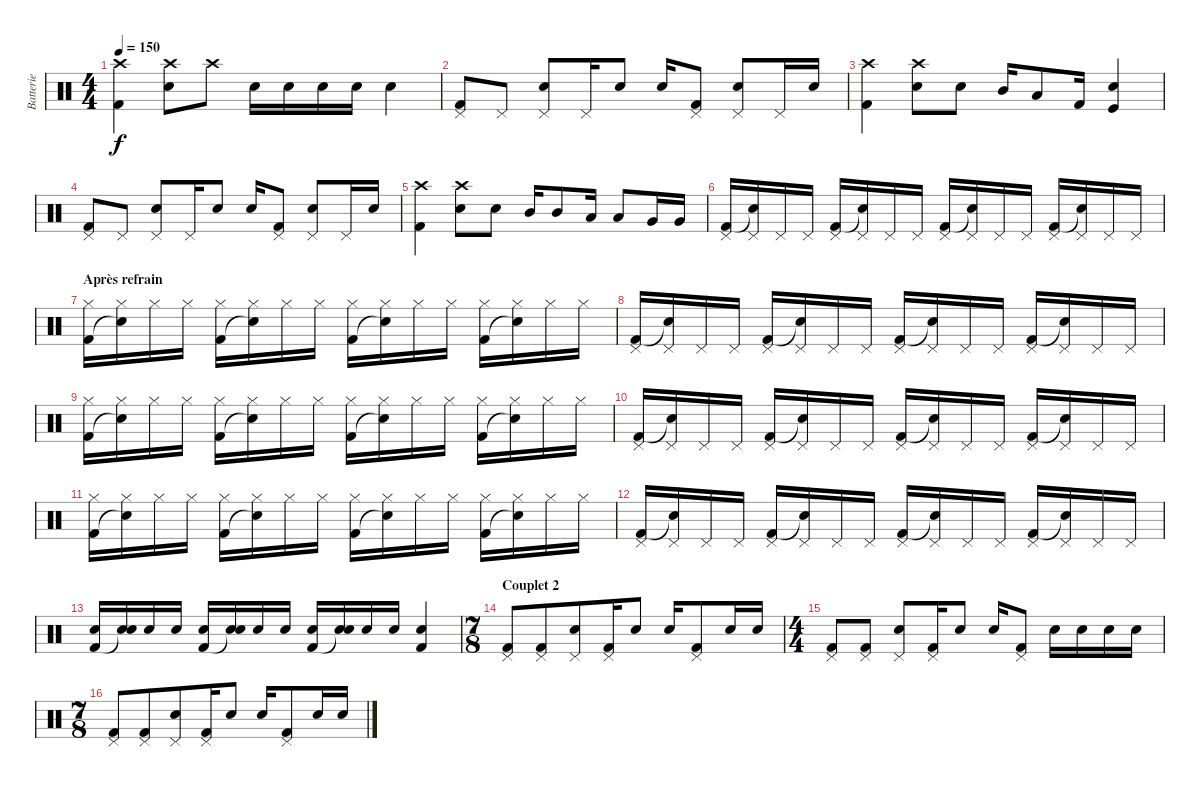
\track ("Batterie" "Batterie") {instrument percussion}
\staff {score}
\articulation defaults
\ts (4 4)
\tempo 150
\clef neutral
\ks c
("Crash high (hit)" "Kick (hit) 2").4{dy f} ("Crash high (hit)" "Electric Snare (hit)").8 "Crash high (hit)".8 "Electric Snare (hit)".16 "Electric Snare (hit)".16 "Electric Snare (hit)".16 "Electric Snare (hit)".16 "Electric Snare (hit)".4 |
("Pedal Hi-Hat (hit)" "Kick (hit) 2").8 "Pedal Hi-Hat (hit)".8 ("Pedal Hi-Hat (hit)" "Electric Snare (hit)").8 "Pedal Hi-Hat (hit)".16 "Electric Snare (hit)".8 "Electric Snare (hit)".16 ("Pedal Hi-Hat (hit)" "Kick (hit) 2").8 ("Pedal Hi-Hat (hit)" "Electric Snare (hit)").8 "Pedal Hi-Hat (hit)".16 "Electric Snare (hit)".16 |
("Crash high (hit)" "Kick (hit) 2").4 ("Crash high (hit)" "Electric Snare (hit)").8 "Electric Snare (hit)".8 "Mid Tom (hit)".16 "Low Tom (hit)".8 "Kick (hit) 2".16 ("Electric Snare (hit)" "Kick (hit)").4 |
("Pedal Hi-Hat (hit)" "Kick (hit) 2").8 "Pedal Hi-Hat (hit)".8 ("Pedal Hi-Hat (hit)" "Electric Snare (hit)").8 "Pedal Hi-Hat (hit)".16 "Electric Snare (hit)".8 "Electric Snare (hit)".16 ("Pedal Hi-Hat (hit)" "Kick (hit) 2").8 ("Pedal Hi-Hat (hit)" "Electric Snare (hit)").8 "Pedal Hi-Hat (hit)".16 "Electric Snare (hit)".16 |
("Crash high (hit)" "Kick (hit) 2").4 ("Crash high (hit)" "Electric Snare (hit)").8 "Electric Snare (hit)".8 "Mid Tom (hit)".16 "Mid Tom (hit)".8 "Low Tom (hit)".16 "Low Tom (hit)".8 "Very Low Tom (hit)".16 "Very Low Tom (hit)".16 |
("Pedal Hi-Hat (hit)" "Kick (hit) 2").16 ("Pedal Hi-Hat (hit)" "Snare (hit)"{t}).16 "Pedal Hi-Hat (hit)".16 "Pedal Hi-Hat (hit)".16 ("Pedal Hi-Hat (hit)" "Kick (hit) 2").16 ("Pedal Hi-Hat (hit)" "Snare (hit)"{t}).16 "Pedal Hi-Hat (hit)".16 "Pedal Hi-Hat (hit)".16 ("Pedal Hi-Hat (hit)" "Kick (hit) 2").16 ("Pedal Hi-Hat (hit)" "Snare (hit)"{t}).16 "Pedal Hi-Hat (hit)".16 "Pedal Hi-Hat (hit)".16 ("Pedal Hi-Hat (hit)" "Kick (hit) 2").16 ("Pedal Hi-Hat (hit)" "Snare (hit)"{t}).16 "Pedal Hi-Hat (hit)".16 "Pedal Hi-Hat (hit)".16 |
\section ("" "Après refrain")
("Hi-Hat (closed)" "Kick (hit) 2").16 ("Hi-Hat (closed)" "Snare (hit)"{t}).16 "Hi-Hat (closed)".16 "Hi-Hat (closed)".16 ("Hi-Hat (closed)" "Kick (hit) 2").16 ("Hi-Hat (closed)" "Snare (hit)"{t}).16 "Hi-Hat (closed)".16 "Hi-Hat (closed)".16 ("Hi-Hat (closed)" "Kick (hit) 2").16 ("Hi-Hat (closed)" "Snare (hit)"{t}).16 "Hi-Hat (closed)".16 "Hi-Hat (closed)".16 ("Hi-Hat (closed)" "Kick (hit) 2").16 ("Hi-Hat (closed)" "Snare (hit)"{t}).16 "Hi-Hat (closed)".16 "Hi-Hat (closed)".16 |
("Pedal Hi-Hat (hit)" "Kick (hit) 2").16 ("Pedal Hi-Hat (hit)" "Snare (hit)"{t}).16 "Pedal Hi-Hat (hit)".16 "Pedal Hi-Hat (hit)".16 ("Pedal Hi-Hat (hit)" "Kick (hit) 2").16 ("Pedal Hi-Hat (hit)" "Snare (hit)"{t}).16 "Pedal Hi-Hat (hit)".16 "Pedal Hi-Hat (hit)".16 ("Pedal Hi-Hat (hit)" "Kick (hit) 2").16 ("Pedal Hi-Hat (hit)" "Snare (hit)"{t}).16 "Pedal Hi-Hat (hit)".16 "Pedal Hi-Hat (hit)".16 ("Pedal Hi-Hat (hit)" "Kick (hit) 2").16 ("Pedal Hi-Hat (hit)" "Snare (hit)"{t}).16 "Pedal Hi-Hat (hit)".16 "Pedal Hi-Hat (hit)".16 |
("Hi-Hat (closed)" "Kick (hit) 2").16 ("Hi-Hat (closed)" "Snare (hit)"{t}).16 "Hi-Hat (closed)".16 "Hi-Hat (closed)".16 ("Hi-Hat (closed)" "Kick (hit) 2").16 ("Hi-Hat (closed)" "Snare (hit)"{t}).16 "Hi-Hat (closed)".16 "Hi-Hat (closed)".16 ("Hi-Hat (closed)" "Kick (hit) 2").16 ("Hi-Hat (closed)" "Snare (hit)"{t}).16 "Hi-Hat (closed)".16 "Hi-Hat (closed)".16 ("Hi-Hat (closed)" "Kick (hit) 2").16 ("Hi-Hat (closed)" "Snare (hit)"{t}).16 "Hi-Hat (closed)".16 "Hi-Hat (closed)".16 |
("Pedal Hi-Hat (hit)" "Kick (hit) 2").16 ("Pedal Hi-Hat (hit)" "Snare (hit)"{t}).16 "Pedal Hi-Hat (hit)".16 "Pedal Hi-Hat (hit)".16 ("Pedal Hi-Hat (hit)" "Kick (hit) 2").16 ("Pedal Hi-Hat (hit)" "Snare (hit)"{t}).16 "Pedal Hi-Hat (hit)".16 "Pedal Hi-Hat (hit)".16 ("Pedal Hi-Hat (hit)" "Kick (hit) 2").16 ("Pedal Hi-Hat (hit)" "Snare (hit)"{t}).16 "Pedal Hi-Hat (hit)".16 "Pedal Hi-Hat (hit)".16 ("Pedal Hi-Hat (hit)" "Kick (hit) 2").16 ("Pedal Hi-Hat (hit)" "Snare (hit)"{t}).16 "Pedal Hi-Hat (hit)".16 "Pedal Hi-Hat (hit)".16 |
("Hi-Hat (closed)" "Kick (hit) 2").16 ("Hi-Hat (closed)" "Snare (hit)"{t}).16 "Hi-Hat (closed)".16 "Hi-Hat (closed)".16 ("Hi-Hat (closed)" "Kick (hit) 2").16 ("Hi-Hat (closed)" "Snare (hit)"{t}).16 "Hi-Hat (closed)".16 "Hi-Hat (closed)".16 ("Hi-Hat (closed)" "Kick (hit) 2").16 ("Hi-Hat (closed)" "Snare (hit)"{t}).16 "Hi-Hat (closed)".16 "Hi-Hat (closed)".16 ("Hi-Hat (closed)" "Kick (hit) 2").16 ("Hi-Hat (closed)" "Snare (hit)"{t}).16 "Hi-Hat (closed)".16 "Hi-Hat (closed)".16 |
("Pedal Hi-Hat (hit)" "Kick (hit) 2").16 ("Pedal Hi-Hat (hit)" "Snare (hit)"{t}).16 "Pedal Hi-Hat (hit)".16 "Pedal Hi-Hat (hit)".16 ("Pedal Hi-Hat (hit)" "Kick (hit) 2").16 ("Pedal Hi-Hat (hit)" "Snare (hit)"{t}).16 "Pedal Hi-Hat (hit)".16 "Pedal Hi-Hat (hit)".16 ("Pedal Hi-Hat (hit)" "Kick (hit) 2").16 ("Pedal Hi-Hat (hit)" "Snare (hit)"{t}).16 "Pedal Hi-Hat (hit)".16 "Pedal Hi-Hat (hit)".16 ("Pedal Hi-Hat (hit)" "Kick (hit) 2").16 ("Pedal Hi-Hat (hit)" "Snare (hit)"{t}).16 "Pedal Hi-Hat (hit)".16 "Pedal Hi-Hat (hit)".16 |
("Electric Snare (hit)" "Kick (hit) 2").16 ("Electric Snare (hit)" "Snare (hit)"{t}).16 "Electric Snare (hit)".16 "Electric Snare (hit)".16 ("Electric Snare (hit)" "Kick (hit) 2").16 ("Electric Snare (hit)" "Snare (hit)"{t}).16 "Electric Snare (hit)".16 "Electric Snare (hit)".16 ("Electric Snare (hit)" "Kick (hit) 2").16 ("Electric Snare (hit)" "Snare (hit)"{t}).16 "Electric Snare (hit)".16 "Electric Snare (hit)".16 ("Electric Snare (hit)" "Kick (hit) 2").4 |
\ts (7 8)
\section ("" "Couplet 2")
("Pedal Hi-Hat (hit)" "Kick (hit) 2").8 ("Pedal Hi-Hat (hit)" "Kick (hit) 2").8 ("Pedal Hi-Hat (hit)" "Electric Snare (hit)").8 ("Pedal Hi-Hat (hit)" "Kick (hit) 2").16 "Electric Snare (hit)".8 "Electric Snare (hit)".16 ("Pedal Hi-Hat (hit)" "Kick (hit) 2").8 "Electric Snare (hit)".16 "Electric Snare (hit)".16 |
\ts (4 4)
("Pedal Hi-Hat (hit)" "Kick (hit) 2").8 ("Pedal Hi-Hat (hit)" "Kick (hit) 2").8 ("Pedal Hi-Hat (hit)" "Electric Snare (hit)").8 ("Pedal Hi-Hat (hit)" "Kick (hit) 2").16 "Electric Snare (hit)".8 "Electric Snare (hit)".16 ("Pedal Hi-Hat (hit)" "Kick (hit) 2").8 "Electric Snare (hit)".16 "Electric Snare (hit)".16 "Electric Snare (hit)".16 "Electric Snare (hit)".16 |
\ts (7 8)
("Pedal Hi-Hat (hit)" "Kick (hit) 2").8 ("Pedal Hi-Hat (hit)" "Kick (hit) 2").8 ("Pedal Hi-Hat (hit)" "Electric Snare (hit)").8 ("Pedal Hi-Hat (hit)" "Kick (hit) 2").16 "Electric Snare (hit)".8 "Electric Snare (hit)".16 ("Pedal Hi-Hat (hit)" "Kick (hit) 2").8 "Electric Snare (hit)".16 "Electric Snare (hit)".16
